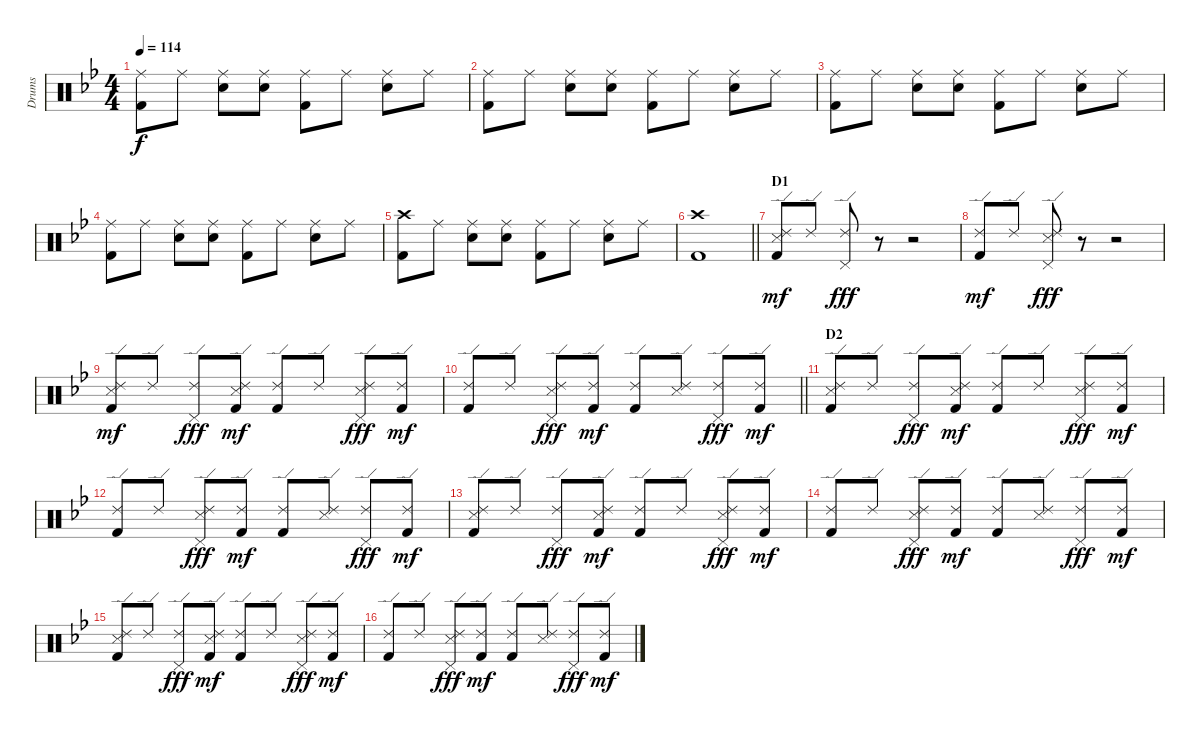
\track ("Drums" "Drums") {instrument percussion}
\staff {score}
\articulation defaults
\ts (4 4)
\tempo 114
\clef neutral
\ks gminor
("Ride (middle)" "Kick (hit) 2").8{dy f} "Ride (middle)".8 ("Ride (middle)" "Electric Snare (hit)").8 ("Ride (middle)" "Electric Snare (hit)").8 ("Ride (middle)" "Kick (hit) 2").8 "Ride (middle)".8 ("Ride (middle)" "Electric Snare (hit)").8 "Ride (middle)".8 |
("Ride (middle)" "Kick (hit) 2").8 "Ride (middle)".8 ("Ride (middle)" "Electric Snare (hit)").8 ("Ride (middle)" "Electric Snare (hit)").8 ("Ride (middle)" "Kick (hit) 2").8 "Ride (middle)".8 ("Ride (middle)" "Electric Snare (hit)").8 "Ride (middle)".8 |
("Ride (middle)" "Kick (hit) 2").8 "Ride (middle)".8 ("Ride (middle)" "Electric Snare (hit)").8 ("Ride (middle)" "Electric Snare (hit)").8 ("Ride (middle)" "Kick (hit) 2").8 "Ride (middle)".8 ("Ride (middle)" "Electric Snare (hit)").8 "Ride (middle)".8 |
("Ride (middle)" "Kick (hit) 2").8 "Ride (middle)".8 ("Ride (middle)" "Electric Snare (hit)").8 ("Ride (middle)" "Electric Snare (hit)").8 ("Ride (middle)" "Kick (hit) 2").8 "Ride (middle)".8 ("Ride (middle)" "Electric Snare (hit)").8 "Ride (middle)".8 |
("Crash high (hit)" "Kick (hit) 2").8 "Ride (middle)".8 ("Ride (middle)" "Electric Snare (hit)").8 ("Ride (middle)" "Electric Snare (hit)").8 ("Ride (middle)" "Kick (hit) 2").8 "Ride (middle)".8 ("Ride (middle)" "Electric Snare (hit)").8 "Ride (middle)".8 |
\barLineRight lightlight
("Crash high (hit)" "Kick (hit) 2").1 |
\section ("" "D1")
("Ride (edge) 2" "Snare (side stick) 3" "Kick (hit) 2").8{dy mf} "Ride (edge) 2".8 ("Ride (edge) 2" "Pedal Hi-Hat (hit)").8{dy fff} r.8 r.2 |
("Ride (edge) 2" "Kick (hit) 2").8{dy mf} "Ride (edge) 2".8 ("Ride (edge) 2" "Pedal Hi-Hat (hit)" "Snare (side stick) 3").8{dy fff} r.8 r.2 |
("Ride (edge) 2" "Snare (side stick) 3" "Kick (hit) 2").8{dy mf} "Ride (edge) 2".8 ("Ride (edge) 2" "Pedal Hi-Hat (hit)").8{dy fff} ("Ride (edge) 2" "Snare (side stick) 3" "Kick (hit) 2").8{dy mf} ("Ride (edge) 2" "Kick (hit) 2").8 "Ride (edge) 2".8 ("Ride (edge) 2" "Pedal Hi-Hat (hit)" "Snare (side stick) 3").8{dy fff} ("Ride (edge) 2" "Kick (hit) 2").8{dy mf} |
\barLineRight lightlight
("Ride (edge) 2" "Kick (hit) 2").8 "Ride (edge) 2".8 ("Ride (edge) 2" "Pedal Hi-Hat (hit)" "Snare (side stick) 3").8{dy fff} ("Ride (edge) 2" "Kick (hit) 2").8{dy mf} ("Ride (edge) 2" "Kick (hit) 2").8 ("Ride (edge) 2" "Snare (side stick) 3").8 ("Ride (edge) 2" "Pedal Hi-Hat (hit)").8{dy fff} ("Ride (edge) 2" "Kick (hit) 2").8{dy mf} |
\section ("" "D2")
("Ride (edge) 2" "Snare (side stick) 3" "Kick (hit) 2").8 "Ride (edge) 2".8 ("Ride (edge) 2" "Pedal Hi-Hat (hit)").8{dy fff} ("Ride (edge) 2" "Snare (side stick) 3" "Kick (hit) 2").8{dy mf} ("Ride (edge) 2" "Kick (hit) 2").8 "Ride (edge) 2".8 ("Ride (edge) 2" "Pedal Hi-Hat (hit)" "Snare (side stick) 3").8{dy fff} ("Ride (edge) 2" "Kick (hit) 2").8{dy mf} |
("Ride (edge) 2" "Kick (hit) 2").8 "Ride (edge) 2".8 ("Ride (edge) 2" "Pedal Hi-Hat (hit)" "Snare (side stick) 3").8{dy fff} ("Ride (edge) 2" "Kick (hit) 2").8{dy mf} ("Ride (edge) 2" "Kick (hit) 2").8 ("Ride (edge) 2" "Snare (side stick) 3").8 ("Ride (edge) 2" "Pedal Hi-Hat (hit)").8{dy fff} ("Ride (edge) 2" "Kick (hit) 2").8{dy mf} |
("Ride (edge) 2" "Snare (side stick) 3" "Kick (hit) 2").8 "Ride (edge) 2".8 ("Ride (edge) 2" "Pedal Hi-Hat (hit)").8{dy fff} ("Ride (edge) 2" "Snare (side stick) 3" "Kick (hit) 2").8{dy mf} ("Ride (edge) 2" "Kick (hit) 2").8 "Ride (edge) 2".8 ("Ride (edge) 2" "Pedal Hi-Hat (hit)" "Snare (side stick) 3").8{dy fff} ("Ride (edge) 2" "Kick (hit) 2").8{dy mf} |
("Ride (edge) 2" "Kick (hit) 2").8 "Ride (edge) 2".8 ("Ride (edge) 2" "Pedal Hi-Hat (hit)" "Snare (side stick) 3").8{dy fff} ("Ride (edge) 2" "Kick (hit) 2").8{dy mf} ("Ride (edge) 2" "Kick (hit) 2").8 ("Ride (edge) 2" "Snare (side stick) 3").8 ("Ride (edge) 2" "Pedal Hi-Hat (hit)").8{dy fff} ("Ride (edge) 2" "Kick (hit) 2").8{dy mf} |
("Ride (edge) 2" "Snare (side stick) 3" "Kick (hit) 2").8 "Ride (edge) 2".8 ("Ride (edge) 2" "Pedal Hi-Hat (hit)").8{dy fff} ("Ride (edge) 2" "Snare (side stick) 3" "Kick (hit) 2").8{dy mf} ("Ride (edge) 2" "Kick (hit) 2").8 "Ride (edge) 2".8 ("Ride (edge) 2" "Pedal Hi-Hat (hit)" "Snare (side stick) 3").8{dy fff} ("Ride (edge) 2" "Kick (hit) 2").8{dy mf} |
("Ride (edge) 2" "Kick (hit) 2").8 "Ride (edge) 2".8 ("Ride (edge) 2" "Pedal Hi-Hat (hit)" "Snare (side stick) 3").8{dy fff} ("Ride (edge) 2" "Kick (hit) 2").8{dy mf} ("Ride (edge) 2" "Kick (hit) 2").8 ("Ride (edge) 2" "Snare (side stick) 3").8 ("Ride (edge) 2" "Pedal Hi-Hat (hit)").8{dy fff} ("Ride (edge) 2" "Kick (hit) 2").8{dy mf}
